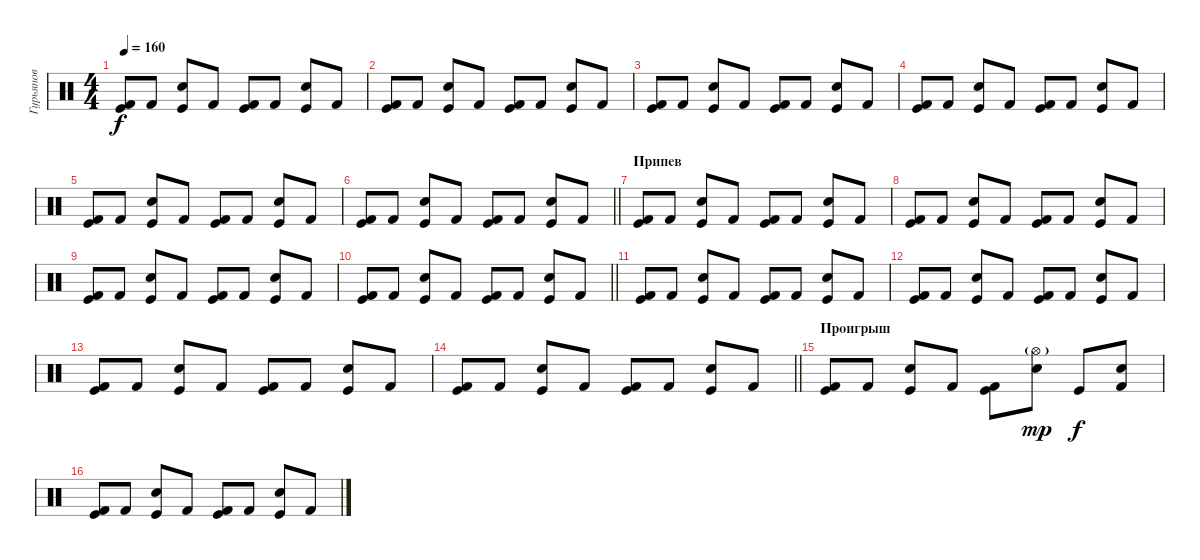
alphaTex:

\track ("Гурьянов" "Гурьянов") {instrument percussion}
\staff {score}
\articulation defaults
\ts (4 4)
\tempo 160
\clef neutral
\ks c
("Kick (hit)" "Kick (hit) 2").8{dy f} "Kick (hit) 2".8 ("Snare (hit) 2" "Kick (hit)").8 "Kick (hit) 2".8 ("Kick (hit)" "Kick (hit) 2").8 "Kick (hit) 2".8 ("Snare (hit) 2" "Kick (hit)").8 "Kick (hit) 2".8 |
("Kick (hit)" "Kick (hit) 2").8 "Kick (hit) 2".8 ("Snare (hit) 2" "Kick (hit)").8 "Kick (hit) 2".8 ("Kick (hit)" "Kick (hit) 2").8 "Kick (hit) 2".8 ("Snare (hit) 2" "Kick (hit)").8 "Kick (hit) 2".8 |
("Kick (hit)" "Kick (hit) 2").8 "Kick (hit) 2".8 ("Snare (hit) 2" "Kick (hit)").8 "Kick (hit) 2".8 ("Kick (hit)" "Kick (hit) 2").8 "Kick (hit) 2".8 ("Snare (hit) 2" "Kick (hit)").8 "Kick (hit) 2".8 |
("Kick (hit)" "Kick (hit) 2").8 "Kick (hit) 2".8 ("Snare (hit) 2" "Kick (hit)").8 "Kick (hit) 2".8 ("Kick (hit)" "Kick (hit) 2").8 "Kick (hit) 2".8 ("Snare (hit) 2" "Kick (hit)").8 "Kick (hit) 2".8 |
("Kick (hit)" "Kick (hit) 2").8 "Kick (hit) 2".8 ("Snare (hit) 2" "Kick (hit)").8 "Kick (hit) 2".8 ("Kick (hit)" "Kick (hit) 2").8 "Kick (hit) 2".8 ("Snare (hit) 2" "Kick (hit)").8 "Kick (hit) 2".8 |
\barLineRight lightlight
("Kick (hit)" "Kick (hit) 2").8 "Kick (hit) 2".8 ("Snare (hit) 2" "Kick (hit)").8 "Kick (hit) 2".8 ("Kick (hit)" "Kick (hit) 2").8 "Kick (hit) 2".8 ("Snare (hit) 2" "Kick (hit)").8 "Kick (hit) 2".8 |
\section ("" "Припев")
("Kick (hit)" "Kick (hit) 2").8 "Kick (hit) 2".8 ("Snare (hit) 2" "Kick (hit)").8 "Kick (hit) 2".8 ("Kick (hit)" "Kick (hit) 2").8 "Kick (hit) 2".8 ("Snare (hit) 2" "Kick (hit)").8 "Kick (hit) 2".8 |
("Kick (hit)" "Kick (hit) 2").8 "Kick (hit) 2".8 ("Snare (hit) 2" "Kick (hit)").8 "Kick (hit) 2".8 ("Kick (hit)" "Kick (hit) 2").8 "Kick (hit) 2".8 ("Snare (hit) 2" "Kick (hit)").8 "Kick (hit) 2".8 |
("Kick (hit)" "Kick (hit) 2").8 "Kick (hit) 2".8 ("Snare (hit) 2" "Kick (hit)").8 "Kick (hit) 2".8 ("Kick (hit)" "Kick (hit) 2").8 "Kick (hit) 2".8 ("Snare (hit) 2" "Kick (hit)").8 "Kick (hit) 2".8 |
\barLineRight lightlight
("Kick (hit)" "Kick (hit) 2").8 "Kick (hit) 2".8 ("Snare (hit) 2" "Kick (hit)").8 "Kick (hit) 2".8 ("Kick (hit)" "Kick (hit) 2").8 "Kick (hit) 2".8 ("Snare (hit) 2" "Kick (hit)").8 "Kick (hit) 2".8 |
("Kick (hit)" "Kick (hit) 2").8 "Kick (hit) 2".8 ("Snare (hit) 2" "Kick (hit)").8 "Kick (hit) 2".8 ("Kick (hit)" "Kick (hit) 2").8 "Kick (hit) 2".8 ("Snare (hit) 2" "Kick (hit)").8 "Kick (hit) 2".8 |
("Kick (hit)" "Kick (hit) 2").8 "Kick (hit) 2".8 ("Snare (hit) 2" "Kick (hit)").8 "Kick (hit) 2".8 ("Kick (hit)" "Kick (hit) 2").8 "Kick (hit) 2".8 ("Snare (hit) 2" "Kick (hit)").8 "Kick (hit) 2".8 |
("Kick (hit)" "Kick (hit) 2").8 "Kick (hit) 2".8 ("Snare (hit) 2" "Kick (hit)").8 "Kick (hit) 2".8 ("Kick (hit)" "Kick (hit) 2").8 "Kick (hit) 2".8 ("Snare (hit) 2" "Kick (hit)").8 "Kick (hit) 2".8 |
\barLineRight lightlight
("Kick (hit)" "Kick (hit) 2").8 "Kick (hit) 2".8 ("Snare (hit) 2" "Kick (hit)").8 "Kick (hit) 2".8 ("Kick (hit)" "Kick (hit) 2").8 "Kick (hit) 2".8 ("Snare (hit) 2" "Kick (hit)").8 "Kick (hit) 2".8 |
\section ("" "Проигрыш")
("Kick (hit)" "Kick (hit) 2").8 "Kick (hit) 2".8 ("Snare (hit) 2" "Kick (hit)").8 "Kick (hit) 2".8 ("Kick (hit)" "Kick (hit) 2").8 ("Hi-Hat (open)"{g} "Snare (hit) 2").8{dy mp} "Kick (hit)".8{dy f} ("Snare (hit) 2" "Kick (hit) 2").8 |
("Kick (hit)" "Kick (hit) 2").8 "Kick (hit) 2".8 ("Snare (hit) 2" "Kick (hit)").8 "Kick (hit) 2".8 ("Kick (hit)" "Kick (hit) 2").8 "Kick (hit) 2".8 ("Snare (hit) 2" "Kick (hit)").8 "Kick (hit) 2".8
